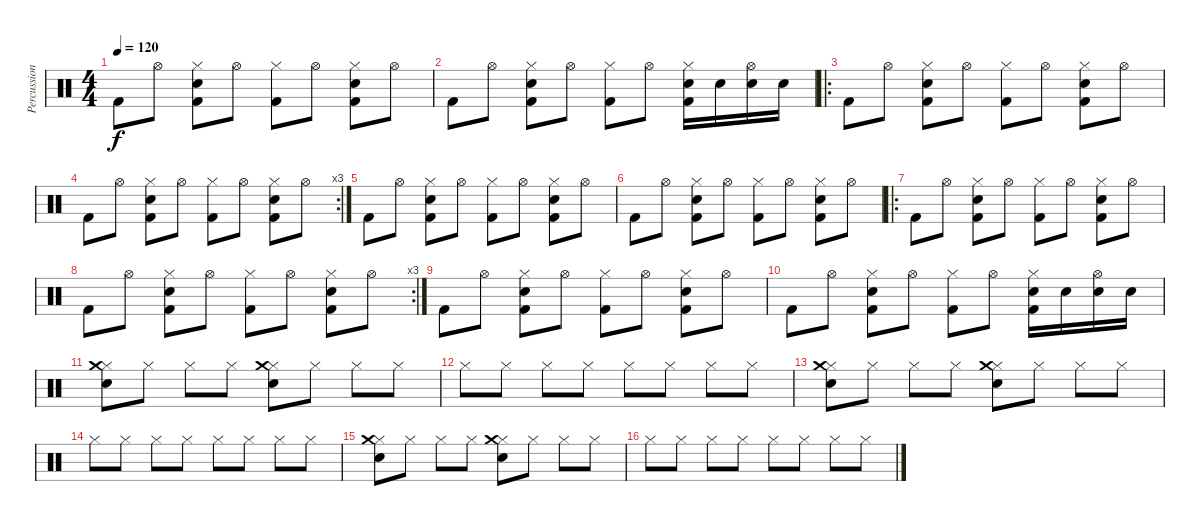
\track ("Percussions" "Percussion") {instrument percussion}
\staff {score}
\articulation defaults
\ts (4 4)
\tempo 120
\clef neutral
\ks c "Kick (hit) 2".8{dy f} "Hi-Hat (open)".8
("Kick (hit) 2" "Hi-Hat (closed)" "Electric Snare (hit)").8 "Hi-Hat (open)".8 ("Kick (hit) 2" "Hi-Hat (closed)").8 "Hi-Hat (open)".8 ("Kick (hit) 2" "Hi-Hat (closed)" "Electric Snare (hit)").8 "Hi-Hat (open)".8 |
"Kick (hit) 2".8 "Hi-Hat (open)".8 ("Kick (hit) 2" "Hi-Hat (closed)" "Electric Snare (hit)").8 "Hi-Hat (open)".8 ("Kick (hit) 2" "Hi-Hat (closed)").8 "Hi-Hat (open)".8 ("Kick (hit) 2" "Hi-Hat (closed)" "Electric Snare (hit)").16 "Electric Snare (hit)".16 ("Hi-Hat (open)" "Electric Snare (hit)").16 "Electric Snare (hit)".16 |
\ro "Kick (hit) 2".8 "Hi-Hat (open)".8
("Kick (hit) 2" "Hi-Hat (closed)" "Electric Snare (hit)").8 "Hi-Hat (open)".8 ("Kick (hit) 2" "Hi-Hat (closed)").8 "Hi-Hat (open)".8 ("Kick (hit) 2" "Hi-Hat (closed)" "Electric Snare (hit)").8 "Hi-Hat (open)".8 |
\rc 3 "Kick (hit) 2".8 "Hi-Hat (open)".8
("Kick (hit) 2" "Hi-Hat (closed)" "Electric Snare (hit)").8 "Hi-Hat (open)".8 ("Kick (hit) 2" "Hi-Hat (closed)").8 "Hi-Hat (open)".8 ("Kick (hit) 2" "Hi-Hat (closed)" "Electric Snare (hit)").8 "Hi-Hat (open)".8 |
"Kick (hit) 2".8 "Hi-Hat (open)".8 ("Kick (hit) 2" "Hi-Hat (closed)" "Electric Snare (hit)").8 "Hi-Hat (open)".8 ("Kick (hit) 2" "Hi-Hat (closed)").8 "Hi-Hat (open)".8 ("Kick (hit) 2" "Hi-Hat (closed)" "Electric Snare (hit)").8 "Hi-Hat (open)".8 |
"Kick (hit) 2".8 "Hi-Hat (open)".8 ("Kick (hit) 2" "Hi-Hat (closed)" "Electric Snare (hit)").8 "Hi-Hat (open)".8 ("Kick (hit) 2" "Hi-Hat (closed)").8 "Hi-Hat (open)".8 ("Kick (hit) 2" "Hi-Hat (closed)" "Electric Snare (hit)").8 "Hi-Hat (open)".8 |
\ro "Kick (hit) 2".8 "Hi-Hat (open)".8
("Kick (hit) 2" "Hi-Hat (closed)" "Electric Snare (hit)").8 "Hi-Hat (open)".8 ("Kick (hit) 2" "Hi-Hat (closed)").8 "Hi-Hat (open)".8 ("Kick (hit) 2" "Hi-Hat (closed)" "Electric Snare (hit)").8 "Hi-Hat (open)".8 |
\rc 3 "Kick (hit) 2".8 "Hi-Hat (open)".8
("Kick (hit) 2" "Hi-Hat (closed)" "Electric Snare (hit)").8 "Hi-Hat (open)".8 ("Kick (hit) 2" "Hi-Hat (closed)").8 "Hi-Hat (open)".8 ("Kick (hit) 2" "Hi-Hat (closed)" "Electric Snare (hit)").8 "Hi-Hat (open)".8 |
"Kick (hit) 2".8 "Hi-Hat (open)".8 ("Kick (hit) 2" "Hi-Hat (closed)" "Electric Snare (hit)").8 "Hi-Hat (open)".8 ("Kick (hit) 2" "Hi-Hat (closed)").8 "Hi-Hat (open)".8 ("Kick (hit) 2" "Hi-Hat (closed)" "Electric Snare (hit)").8 "Hi-Hat (open)".8 |
"Kick (hit) 2".8 "Hi-Hat (open)".8 ("Kick (hit) 2" "Hi-Hat (closed)" "Electric Snare (hit)").8 "Hi-Hat (open)".8 ("Kick (hit) 2" "Hi-Hat (closed)").8 "Hi-Hat (open)".8 ("Kick (hit) 2" "Hi-Hat (closed)" "Electric Snare (hit)").16 "Electric Snare (hit)".16 ("Hi-Hat (open)" "Electric Snare (hit)").16 "Electric Snare (hit)".16 |
("Hi-Hat (closed)" "Crash medium (hit)" "Electric Snare (hit)").8 "Hi-Hat (closed)".8 "Hi-Hat (closed)".8 "Hi-Hat (closed)".8 ("Hi-Hat (closed)" "Crash medium (hit)" "Electric Snare (hit)").8 "Hi-Hat (closed)".8 "Hi-Hat (closed)".8 "Hi-Hat (closed)".8 |
"Hi-Hat (closed)".8 "Hi-Hat (closed)".8 "Hi-Hat (closed)".8 "Hi-Hat (closed)".8 "Hi-Hat (closed)".8 "Hi-Hat (closed)".8 "Hi-Hat (closed)".8 "Hi-Hat (closed)".8 |
("Hi-Hat (closed)" "Crash medium (hit)" "Electric Snare (hit)").8 "Hi-Hat (closed)".8 "Hi-Hat (closed)".8 "Hi-Hat (closed)".8 ("Hi-Hat (closed)" "Crash medium (hit)" "Electric Snare (hit)").8 "Hi-Hat (closed)".8 "Hi-Hat (closed)".8 "Hi-Hat (closed)".8 |
"Hi-Hat (closed)".8 "Hi-Hat (closed)".8 "Hi-Hat (closed)".8 "Hi-Hat (closed)".8 "Hi-Hat (closed)".8 "Hi-Hat (closed)".8 "Hi-Hat (closed)".8 "Hi-Hat (closed)".8 |
("Hi-Hat (closed)" "Crash medium (hit)" "Electric Snare (hit)").8 "Hi-Hat (closed)".8 "Hi-Hat (closed)".8 "Hi-Hat (closed)".8 ("Hi-Hat (closed)" "Crash medium (hit)" "Electric Snare (hit)").8 "Hi-Hat (closed)".8 "Hi-Hat (closed)".8 "Hi-Hat (closed)".8 |
"Hi-Hat (closed)".8 "Hi-Hat (closed)".8 "Hi-Hat (closed)".8 "Hi-Hat (closed)".8 "Hi-Hat (closed)".8 "Hi-Hat (closed)".8 "Hi-Hat (closed)".8 "Hi-Hat (closed)".8
